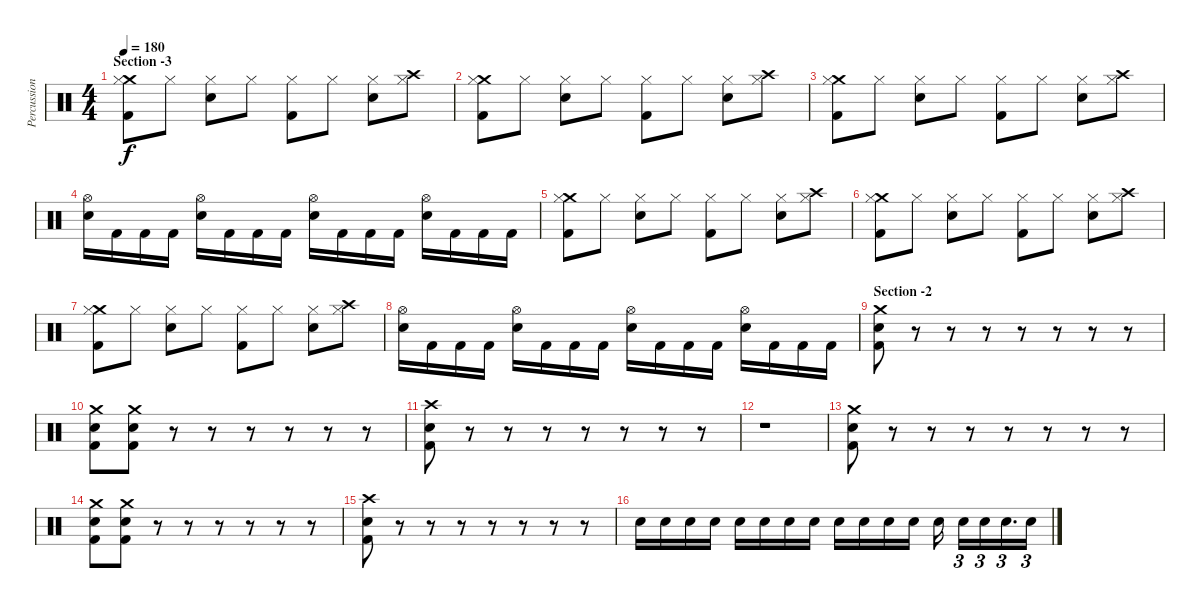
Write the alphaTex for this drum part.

\track ("Percussion" "Percussion") {instrument percussion}
\staff {score}
\articulation defaults
\ts (4 4)
\section ("" "Section -3")
\tempo 180
\clef neutral
\ks c
("Crash medium (hit)" "Kick (hit) 2" "Hi-Hat (closed)").8{dy f} "Hi-Hat (closed)".8 ("Snare (hit) 2" "Hi-Hat (closed)").8 "Hi-Hat (closed)".8 ("Kick (hit) 2" "Hi-Hat (closed)").8 "Hi-Hat (closed)".8 ("Snare (hit) 2" "Hi-Hat (closed)").8 ("Crash high (hit)" "Hi-Hat (closed)").8 |
("Crash medium (hit)" "Kick (hit) 2" "Hi-Hat (closed)").8 "Hi-Hat (closed)".8 ("Snare (hit) 2" "Hi-Hat (closed)").8 "Hi-Hat (closed)".8 ("Kick (hit) 2" "Hi-Hat (closed)").8 "Hi-Hat (closed)".8 ("Snare (hit) 2" "Hi-Hat (closed)").8 ("Crash high (hit)" "Hi-Hat (closed)").8 |
("Crash medium (hit)" "Kick (hit) 2" "Hi-Hat (closed)").8 "Hi-Hat (closed)".8 ("Snare (hit) 2" "Hi-Hat (closed)").8 "Hi-Hat (closed)".8 ("Kick (hit) 2" "Hi-Hat (closed)").8 "Hi-Hat (closed)".8 ("Snare (hit) 2" "Hi-Hat (closed)").8 ("Crash high (hit)" "Hi-Hat (closed)").8 |
("Hi-Hat (open)" "Snare (hit) 2").16 "Kick (hit) 2".16 "Kick (hit) 2".16 "Kick (hit) 2".16 ("Hi-Hat (open)" "Snare (hit) 2").16 "Kick (hit) 2".16 "Kick (hit) 2".16 "Kick (hit) 2".16 ("Hi-Hat (open)" "Snare (hit) 2").16 "Kick (hit) 2".16 "Kick (hit) 2".16 "Kick (hit) 2".16 ("Hi-Hat (open)" "Snare (hit) 2").16 "Kick (hit) 2".16 "Kick (hit) 2".16 "Kick (hit) 2".16 |
("Crash medium (hit)" "Kick (hit) 2" "Hi-Hat (closed)").8 "Hi-Hat (closed)".8 ("Snare (hit) 2" "Hi-Hat (closed)").8 "Hi-Hat (closed)".8 ("Kick (hit) 2" "Hi-Hat (closed)").8 "Hi-Hat (closed)".8 ("Snare (hit) 2" "Hi-Hat (closed)").8 ("Crash high (hit)" "Hi-Hat (closed)").8 |
("Crash medium (hit)" "Kick (hit) 2" "Hi-Hat (closed)").8 "Hi-Hat (closed)".8 ("Snare (hit) 2" "Hi-Hat (closed)").8 "Hi-Hat (closed)".8 ("Kick (hit) 2" "Hi-Hat (closed)").8 "Hi-Hat (closed)".8 ("Snare (hit) 2" "Hi-Hat (closed)").8 ("Crash high (hit)" "Hi-Hat (closed)").8 |
("Crash medium (hit)" "Kick (hit) 2" "Hi-Hat (closed)").8 "Hi-Hat (closed)".8 ("Snare (hit) 2" "Hi-Hat (closed)").8 "Hi-Hat (closed)".8 ("Kick (hit) 2" "Hi-Hat (closed)").8 "Hi-Hat (closed)".8 ("Snare (hit) 2" "Hi-Hat (closed)").8 ("Crash high (hit)" "Hi-Hat (closed)").8 |
("Hi-Hat (open)" "Snare (hit) 2").16 "Kick (hit) 2".16 "Kick (hit) 2".16 "Kick (hit) 2".16 ("Hi-Hat (open)" "Snare (hit) 2").16 "Kick (hit) 2".16 "Kick (hit) 2".16 "Kick (hit) 2".16 ("Hi-Hat (open)" "Snare (hit) 2").16 "Kick (hit) 2".16 "Kick (hit) 2".16 "Kick (hit) 2".16 ("Hi-Hat (open)" "Snare (hit) 2").16 "Kick (hit) 2".16 "Kick (hit) 2".16 "Kick (hit) 2".16 |
\section ("" "Section -2")
("Crash medium (hit)" "Kick (hit) 2" "Snare (hit) 2").8 r.8 r.8 r.8 r.8 r.8 r.8 r.8 |
("Crash medium (hit)" "Kick (hit) 2" "Snare (hit) 2").8 ("Crash medium (hit)" "Kick (hit) 2" "Snare (hit) 2").8 r.8 r.8 r.8 r.8 r.8 r.8 |
("Crash high (hit)" "Kick (hit) 2" "Snare (hit) 2").8 r.8 r.8 r.8 r.8 r.8 r.8 r.8 |
r.1 |
("Crash medium (hit)" "Kick (hit) 2" "Snare (hit) 2").8 r.8 r.8 r.8 r.8 r.8 r.8 r.8 |
("Crash medium (hit)" "Kick (hit) 2" "Snare (hit) 2").8 ("Crash medium (hit)" "Kick (hit) 2" "Snare (hit) 2").8 r.8 r.8 r.8 r.8 r.8 r.8 |
("Crash high (hit)" "Kick (hit) 2" "Snare (hit) 2").8 r.8 r.8 r.8 r.8 r.8 r.8 r.8 |
"Snare (hit) 2".16 "Snare (hit) 2".16 "Snare (hit) 2".16 "Snare (hit) 2".16 "Snare (hit) 2".16 "Snare (hit) 2".16 "Snare (hit) 2".16 "Snare (hit) 2".16 "Snare (hit) 2".16 "Snare (hit) 2".16 "Snare (hit) 2".16 "Snare (hit) 2".16 "Snare (hit) 2".16 "Snare (hit) 2".16{tu (3 2)} "Snare (hit) 2".16{tu (3 2)} "Snare (hit) 2".16{d tu (3 2)} "Snare (hit) 2".16{tu (3 2)}
